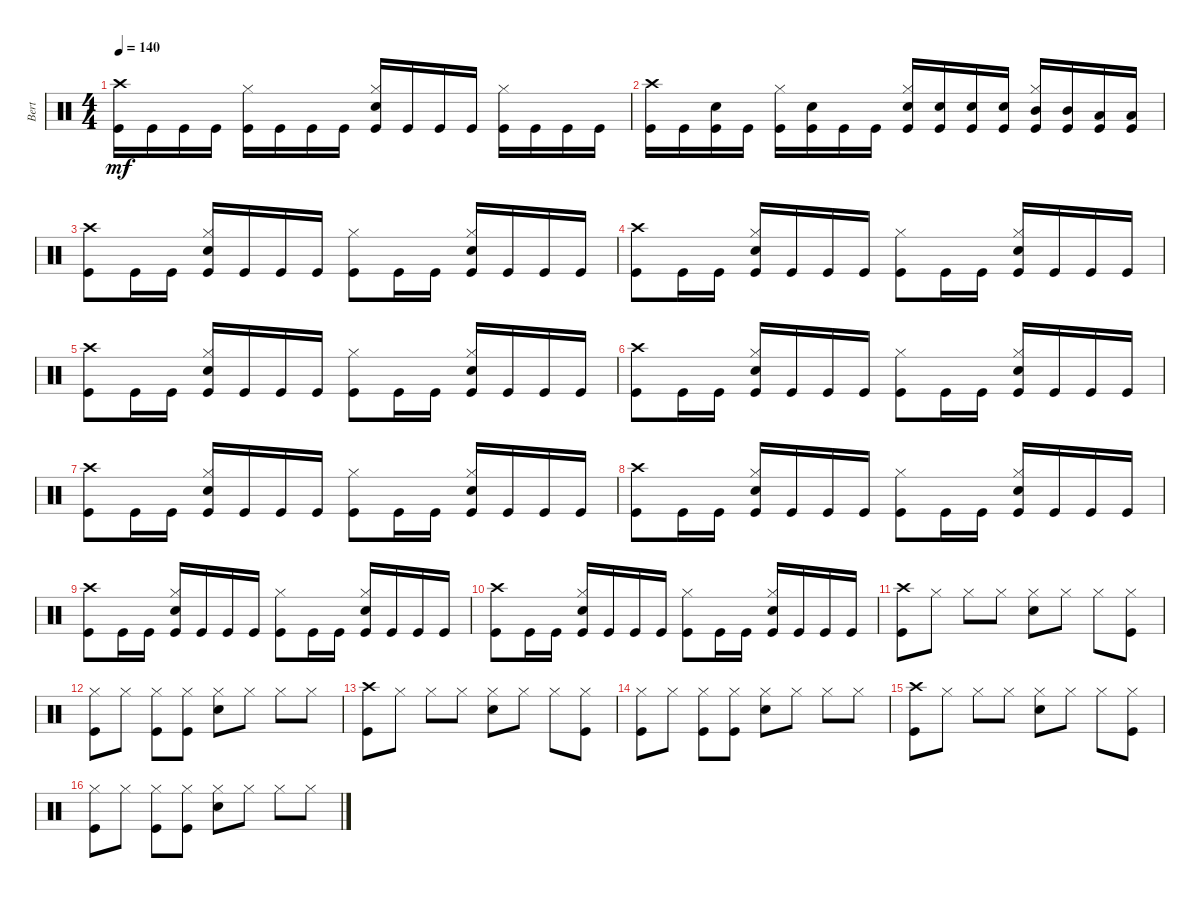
\track ("Bert" "Bert") {instrument percussion}
\staff {score}
\articulation defaults
\ts (4 4)
\tempo 140
\clef neutral
\ks c
("Kick (hit)" "Crash high (hit)").16{dy mf} "Kick (hit)".16 "Kick (hit)".16 "Kick (hit)".16 ("Kick (hit)" "Hi-Hat (closed)").16 "Kick (hit)".16 "Kick (hit)".16 "Kick (hit)".16 ("Hi-Hat (closed)" "Kick (hit)" "Electric Snare (hit)").16 "Kick (hit)".16 "Kick (hit)".16 "Kick (hit)".16 ("Hi-Hat (closed)" "Kick (hit)").16 "Kick (hit)".16 "Kick (hit)".16 "Kick (hit)".16 |
("Kick (hit)" "Crash high (hit)").16 "Kick (hit)".16 ("Electric Snare (hit)" "Kick (hit)").16 "Kick (hit)".16 ("Kick (hit)" "Hi-Hat (closed)").16 ("Kick (hit)" "Electric Snare (hit)").16 "Kick (hit)".16 "Kick (hit)".16 ("Hi-Hat (closed)" "Kick (hit)" "Electric Snare (hit)").16 ("Kick (hit)" "Electric Snare (hit)").16 ("Electric Snare (hit)" "Kick (hit)").16 ("Electric Snare (hit)" "Kick (hit)").16 ("Hi-Hat (closed)" "Kick (hit)" "Mid Tom (hit)").16 ("Kick (hit)" "Mid Tom (hit)").16 ("Kick (hit)" "Low Tom (hit)").16 ("Kick (hit)" "Low Tom (hit)").16 |
("Kick (hit)" "Crash high (hit)").8 "Kick (hit)".16 "Kick (hit)".16 ("Hi-Hat (closed)" "Kick (hit)" "Electric Snare (hit)").16 "Kick (hit)".16 "Kick (hit)".16 "Kick (hit)".16 ("Kick (hit)" "Hi-Hat (closed)").8 "Kick (hit)".16 "Kick (hit)".16 ("Kick (hit)" "Electric Snare (hit)" "Hi-Hat (closed)").16 "Kick (hit)".16 "Kick (hit)".16 "Kick (hit)".16 |
("Kick (hit)" "Crash high (hit)").8 "Kick (hit)".16 "Kick (hit)".16 ("Hi-Hat (closed)" "Kick (hit)" "Electric Snare (hit)").16 "Kick (hit)".16 "Kick (hit)".16 "Kick (hit)".16 ("Hi-Hat (closed)" "Kick (hit)").8 "Kick (hit)".16 "Kick (hit)".16 ("Electric Snare (hit)" "Kick (hit)" "Hi-Hat (closed)").16 "Kick (hit)".16 "Kick (hit)".16 "Kick (hit)".16 |
("Crash high (hit)" "Kick (hit)").8 "Kick (hit)".16 "Kick (hit)".16 ("Electric Snare (hit)" "Kick (hit)" "Hi-Hat (closed)").16 "Kick (hit)".16 "Kick (hit)".16 "Kick (hit)".16 ("Hi-Hat (closed)" "Kick (hit)").8 "Kick (hit)".16 "Kick (hit)".16 ("Hi-Hat (closed)" "Electric Snare (hit)" "Kick (hit)").16 "Kick (hit)".16 "Kick (hit)".16 "Kick (hit)".16 |
("Kick (hit)" "Crash high (hit)").8 "Kick (hit)".16 "Kick (hit)".16 ("Kick (hit)" "Electric Snare (hit)" "Hi-Hat (closed)").16 "Kick (hit)".16 "Kick (hit)".16 "Kick (hit)".16 ("Kick (hit)" "Hi-Hat (closed)").8 "Kick (hit)".16 "Kick (hit)".16 ("Electric Snare (hit)" "Hi-Hat (closed)" "Kick (hit)").16 "Kick (hit)".16 "Kick (hit)".16 "Kick (hit)".16 |
("Crash high (hit)" "Kick (hit)").8 "Kick (hit)".16 "Kick (hit)".16 ("Kick (hit)" "Electric Snare (hit)" "Hi-Hat (closed)").16 "Kick (hit)".16 "Kick (hit)".16 "Kick (hit)".16 ("Hi-Hat (closed)" "Kick (hit)").8 "Kick (hit)".16 "Kick (hit)".16 ("Electric Snare (hit)" "Hi-Hat (closed)" "Kick (hit)").16 "Kick (hit)".16 "Kick (hit)".16 "Kick (hit)".16 |
("Crash high (hit)" "Kick (hit)").8 "Kick (hit)".16 "Kick (hit)".16 ("Hi-Hat (closed)" "Kick (hit)" "Electric Snare (hit)").16 "Kick (hit)".16 "Kick (hit)".16 "Kick (hit)".16 ("Hi-Hat (closed)" "Kick (hit)").8 "Kick (hit)".16 "Kick (hit)".16 ("Kick (hit)" "Electric Snare (hit)" "Hi-Hat (closed)").16 "Kick (hit)".16 "Kick (hit)".16 "Kick (hit)".16 |
("Kick (hit)" "Crash high (hit)").8 "Kick (hit)".16 "Kick (hit)".16 ("Hi-Hat (closed)" "Kick (hit)" "Electric Snare (hit)").16 "Kick (hit)".16 "Kick (hit)".16 "Kick (hit)".16 ("Kick (hit)" "Hi-Hat (closed)").8 "Kick (hit)".16 "Kick (hit)".16 ("Kick (hit)" "Hi-Hat (closed)" "Electric Snare (hit)").16 "Kick (hit)".16 "Kick (hit)".16 "Kick (hit)".16 |
("Kick (hit)" "Crash high (hit)").8 "Kick (hit)".16 "Kick (hit)".16 ("Hi-Hat (closed)" "Kick (hit)" "Electric Snare (hit)").16 "Kick (hit)".16 "Kick (hit)".16 "Kick (hit)".16 ("Kick (hit)" "Hi-Hat (closed)").8 "Kick (hit)".16 "Kick (hit)".16 ("Hi-Hat (closed)" "Kick (hit)" "Electric Snare (hit)").16 "Kick (hit)".16 "Kick (hit)".16 "Kick (hit)".16 |
("Kick (hit)" "Crash high (hit)").8 "Hi-Hat (closed)".8 "Hi-Hat (closed)".8 "Hi-Hat (closed)".8 ("Hi-Hat (closed)" "Electric Snare (hit)").8 "Hi-Hat (closed)".8 "Hi-Hat (closed)".8 ("Hi-Hat (closed)" "Kick (hit)").8 |
("Kick (hit)" "Hi-Hat (closed)").8 "Hi-Hat (closed)".8 ("Hi-Hat (closed)" "Kick (hit)").8 ("Hi-Hat (closed)" "Kick (hit)").8 ("Electric Snare (hit)" "Hi-Hat (closed)").8 "Hi-Hat (closed)".8 "Hi-Hat (closed)".8 "Hi-Hat (closed)".8 |
("Crash high (hit)" "Kick (hit)").8 "Hi-Hat (closed)".8 "Hi-Hat (closed)".8 "Hi-Hat (closed)".8 ("Hi-Hat (closed)" "Electric Snare (hit)").8 "Hi-Hat (closed)".8 "Hi-Hat (closed)".8 ("Kick (hit)" "Hi-Hat (closed)").8 |
("Kick (hit)" "Hi-Hat (closed)").8 "Hi-Hat (closed)".8 ("Kick (hit)" "Hi-Hat (closed)").8 ("Kick (hit)" "Hi-Hat (closed)").8 ("Hi-Hat (closed)" "Electric Snare (hit)").8 "Hi-Hat (closed)".8 "Hi-Hat (closed)".8 "Hi-Hat (closed)".8 |
("Crash high (hit)" "Kick (hit)").8 "Hi-Hat (closed)".8 "Hi-Hat (closed)".8 "Hi-Hat (closed)".8 ("Electric Snare (hit)" "Hi-Hat (closed)").8 "Hi-Hat (closed)".8 "Hi-Hat (closed)".8 ("Hi-Hat (closed)" "Kick (hit)").8 |
("Kick (hit)" "Hi-Hat (closed)").8 "Hi-Hat (closed)".8 ("Kick (hit)" "Hi-Hat (closed)").8 ("Kick (hit)" "Hi-Hat (closed)").8 ("Hi-Hat (closed)" "Electric Snare (hit)").8 "Hi-Hat (closed)".8 "Hi-Hat (closed)".8 "Hi-Hat (closed)".8
